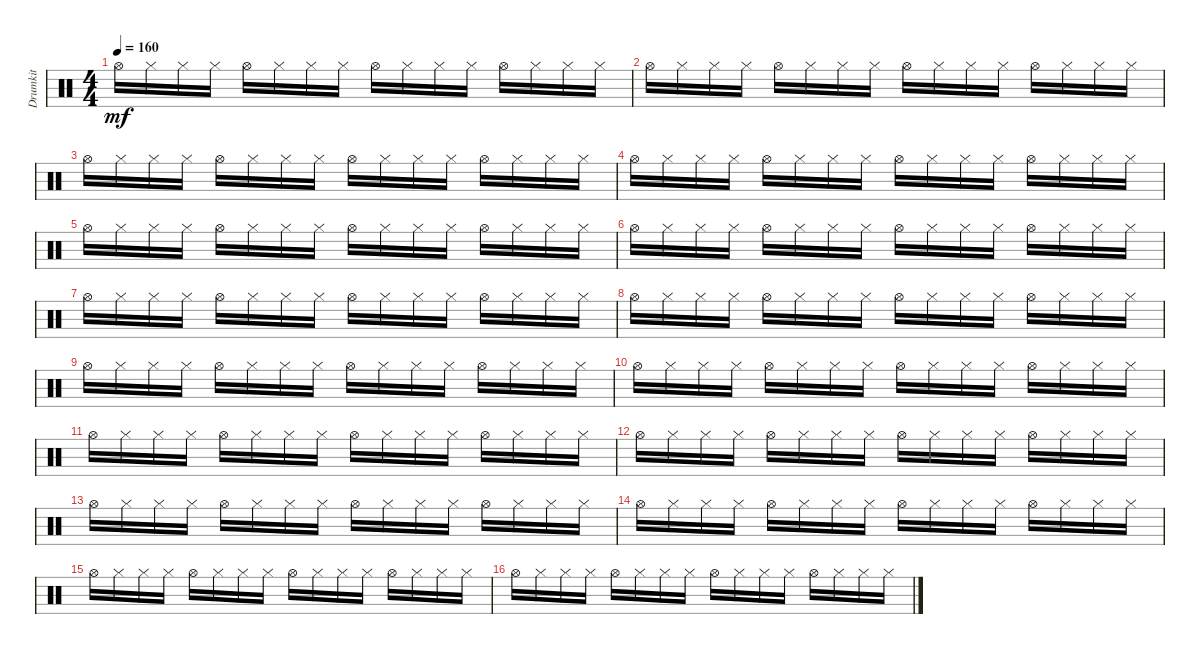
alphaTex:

\track ("Drumkit" "Drumkit") {instrument percussion}
\staff {score}
\articulation defaults
\ts (4 4)
\tempo 160
\clef neutral
\ks c "Hi-Hat (open)".16{dy mf} "Hi-Hat (closed)".16 "Hi-Hat (closed)".16 "Hi-Hat (closed)".16 "Hi-Hat (open)".16 "Hi-Hat (closed)".16 "Hi-Hat (closed)".16 "Hi-Hat (closed)".16 "Hi-Hat (open)".16 "Hi-Hat (closed)".16 "Hi-Hat (closed)".16 "Hi-Hat (closed)".16 "Hi-Hat (open)".16 "Hi-Hat (closed)".16 "Hi-Hat (closed)".16 "Hi-Hat (closed)".16
|
"Hi-Hat (open)".16 "Hi-Hat (closed)".16 "Hi-Hat (closed)".16 "Hi-Hat (closed)".16 "Hi-Hat (open)".16 "Hi-Hat (closed)".16 "Hi-Hat (closed)".16 "Hi-Hat (closed)".16 "Hi-Hat (open)".16 "Hi-Hat (closed)".16 "Hi-Hat (closed)".16 "Hi-Hat (closed)".16 "Hi-Hat (open)".16 "Hi-Hat (closed)".16 "Hi-Hat (closed)".16 "Hi-Hat (closed)".16 |
"Hi-Hat (open)".16 "Hi-Hat (closed)".16 "Hi-Hat (closed)".16 "Hi-Hat (closed)".16 "Hi-Hat (open)".16 "Hi-Hat (closed)".16 "Hi-Hat (closed)".16 "Hi-Hat (closed)".16 "Hi-Hat (open)".16 "Hi-Hat (closed)".16 "Hi-Hat (closed)".16 "Hi-Hat (closed)".16 "Hi-Hat (open)".16 "Hi-Hat (closed)".16 "Hi-Hat (closed)".16 "Hi-Hat (closed)".16 |
"Hi-Hat (open)".16 "Hi-Hat (closed)".16 "Hi-Hat (closed)".16 "Hi-Hat (closed)".16 "Hi-Hat (open)".16 "Hi-Hat (closed)".16 "Hi-Hat (closed)".16 "Hi-Hat (closed)".16 "Hi-Hat (open)".16 "Hi-Hat (closed)".16 "Hi-Hat (closed)".16 "Hi-Hat (closed)".16 "Hi-Hat (open)".16 "Hi-Hat (closed)".16 "Hi-Hat (closed)".16 "Hi-Hat (closed)".16 |
"Hi-Hat (open)".16 "Hi-Hat (closed)".16 "Hi-Hat (closed)".16 "Hi-Hat (closed)".16 "Hi-Hat (open)".16 "Hi-Hat (closed)".16 "Hi-Hat (closed)".16 "Hi-Hat (closed)".16 "Hi-Hat (open)".16 "Hi-Hat (closed)".16 "Hi-Hat (closed)".16 "Hi-Hat (closed)".16 "Hi-Hat (open)".16 "Hi-Hat (closed)".16 "Hi-Hat (closed)".16 "Hi-Hat (closed)".16 |
"Hi-Hat (open)".16 "Hi-Hat (closed)".16 "Hi-Hat (closed)".16 "Hi-Hat (closed)".16 "Hi-Hat (open)".16 "Hi-Hat (closed)".16 "Hi-Hat (closed)".16 "Hi-Hat (closed)".16 "Hi-Hat (open)".16 "Hi-Hat (closed)".16 "Hi-Hat (closed)".16 "Hi-Hat (closed)".16 "Hi-Hat (open)".16 "Hi-Hat (closed)".16 "Hi-Hat (closed)".16 "Hi-Hat (closed)".16 |
"Hi-Hat (open)".16 "Hi-Hat (closed)".16 "Hi-Hat (closed)".16 "Hi-Hat (closed)".16 "Hi-Hat (open)".16 "Hi-Hat (closed)".16 "Hi-Hat (closed)".16 "Hi-Hat (closed)".16 "Hi-Hat (open)".16 "Hi-Hat (closed)".16 "Hi-Hat (closed)".16 "Hi-Hat (closed)".16 "Hi-Hat (open)".16 "Hi-Hat (closed)".16 "Hi-Hat (closed)".16 "Hi-Hat (closed)".16 |
"Hi-Hat (open)".16 "Hi-Hat (closed)".16 "Hi-Hat (closed)".16 "Hi-Hat (closed)".16 "Hi-Hat (open)".16 "Hi-Hat (closed)".16 "Hi-Hat (closed)".16 "Hi-Hat (closed)".16 "Hi-Hat (open)".16 "Hi-Hat (closed)".16 "Hi-Hat (closed)".16 "Hi-Hat (closed)".16 "Hi-Hat (open)".16 "Hi-Hat (closed)".16 "Hi-Hat (closed)".16 "Hi-Hat (closed)".16 |
"Hi-Hat (open)".16 "Hi-Hat (closed)".16 "Hi-Hat (closed)".16 "Hi-Hat (closed)".16 "Hi-Hat (open)".16 "Hi-Hat (closed)".16 "Hi-Hat (closed)".16 "Hi-Hat (closed)".16 "Hi-Hat (open)".16 "Hi-Hat (closed)".16 "Hi-Hat (closed)".16 "Hi-Hat (closed)".16 "Hi-Hat (open)".16 "Hi-Hat (closed)".16 "Hi-Hat (closed)".16 "Hi-Hat (closed)".16 |
"Hi-Hat (open)".16 "Hi-Hat (closed)".16 "Hi-Hat (closed)".16 "Hi-Hat (closed)".16 "Hi-Hat (open)".16 "Hi-Hat (closed)".16 "Hi-Hat (closed)".16 "Hi-Hat (closed)".16 "Hi-Hat (open)".16 "Hi-Hat (closed)".16 "Hi-Hat (closed)".16 "Hi-Hat (closed)".16 "Hi-Hat (open)".16 "Hi-Hat (closed)".16 "Hi-Hat (closed)".16 "Hi-Hat (closed)".16 |
"Hi-Hat (open)".16 "Hi-Hat (closed)".16 "Hi-Hat (closed)".16 "Hi-Hat (closed)".16 "Hi-Hat (open)".16 "Hi-Hat (closed)".16 "Hi-Hat (closed)".16 "Hi-Hat (closed)".16 "Hi-Hat (open)".16 "Hi-Hat (closed)".16 "Hi-Hat (closed)".16 "Hi-Hat (closed)".16 "Hi-Hat (open)".16 "Hi-Hat (closed)".16 "Hi-Hat (closed)".16 "Hi-Hat (closed)".16 |
"Hi-Hat (open)".16 "Hi-Hat (closed)".16 "Hi-Hat (closed)".16 "Hi-Hat (closed)".16 "Hi-Hat (open)".16 "Hi-Hat (closed)".16 "Hi-Hat (closed)".16 "Hi-Hat (closed)".16 "Hi-Hat (open)".16 "Hi-Hat (closed)".16 "Hi-Hat (closed)".16 "Hi-Hat (closed)".16 "Hi-Hat (open)".16 "Hi-Hat (closed)".16 "Hi-Hat (closed)".16 "Hi-Hat (closed)".16 |
"Hi-Hat (open)".16 "Hi-Hat (closed)".16 "Hi-Hat (closed)".16 "Hi-Hat (closed)".16 "Hi-Hat (open)".16 "Hi-Hat (closed)".16 "Hi-Hat (closed)".16 "Hi-Hat (closed)".16 "Hi-Hat (open)".16 "Hi-Hat (closed)".16 "Hi-Hat (closed)".16 "Hi-Hat (closed)".16 "Hi-Hat (open)".16 "Hi-Hat (closed)".16 "Hi-Hat (closed)".16 "Hi-Hat (closed)".16 |
"Hi-Hat (open)".16 "Hi-Hat (closed)".16 "Hi-Hat (closed)".16 "Hi-Hat (closed)".16 "Hi-Hat (open)".16 "Hi-Hat (closed)".16 "Hi-Hat (closed)".16 "Hi-Hat (closed)".16 "Hi-Hat (open)".16 "Hi-Hat (closed)".16 "Hi-Hat (closed)".16 "Hi-Hat (closed)".16 "Hi-Hat (open)".16 "Hi-Hat (closed)".16 "Hi-Hat (closed)".16 "Hi-Hat (closed)".16 |
"Hi-Hat (open)".16 "Hi-Hat (closed)".16 "Hi-Hat (closed)".16 "Hi-Hat (closed)".16 "Hi-Hat (open)".16 "Hi-Hat (closed)".16 "Hi-Hat (closed)".16 "Hi-Hat (closed)".16 "Hi-Hat (open)".16 "Hi-Hat (closed)".16 "Hi-Hat (closed)".16 "Hi-Hat (closed)".16 "Hi-Hat (open)".16 "Hi-Hat (closed)".16 "Hi-Hat (closed)".16 "Hi-Hat (closed)".16 |
"Hi-Hat (open)".16 "Hi-Hat (closed)".16 "Hi-Hat (closed)".16 "Hi-Hat (closed)".16 "Hi-Hat (open)".16 "Hi-Hat (closed)".16 "Hi-Hat (closed)".16 "Hi-Hat (closed)".16 "Hi-Hat (open)".16 "Hi-Hat (closed)".16 "Hi-Hat (closed)".16 "Hi-Hat (closed)".16 "Hi-Hat (open)".16 "Hi-Hat (closed)".16 "Hi-Hat (closed)".16 "Hi-Hat (closed)".16
